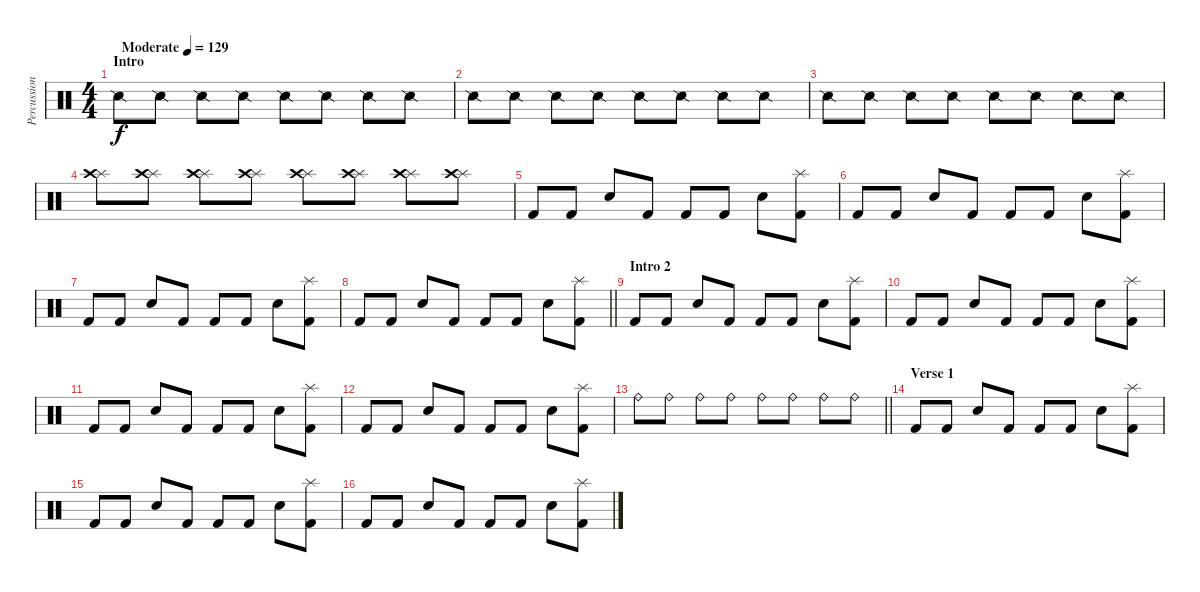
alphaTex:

\track ("Percussion" "Percussion") {instrument percussion}
\staff {score}
\articulation defaults
\ts (4 4)
\section ("" "Intro")
\tempo (129 "Moderate")
\clef neutral
\ks c "Snare (side stick) 2".8{dy f} "Snare (side stick) 2".8 "Snare (side stick) 2".8 "Snare (side stick) 2".8 "Snare (side stick) 2".8 "Snare (side stick) 2".8 "Snare (side stick) 2".8 "Snare (side stick) 2".8
|
"Snare (side stick) 2".8 "Snare (side stick) 2".8 "Snare (side stick) 2".8 "Snare (side stick) 2".8 "Snare (side stick) 2".8 "Snare (side stick) 2".8 "Snare (side stick) 2".8 "Snare (side stick) 2".8 |
"Snare (side stick) 2".8 "Snare (side stick) 2".8 "Snare (side stick) 2".8 "Snare (side stick) 2".8 "Snare (side stick) 2".8 "Snare (side stick) 2".8 "Snare (side stick) 2".8 "Snare (side stick) 2".8 |
("Splash (hit)" "Crash high (hit)").8 ("Splash (hit)" "Crash high (hit)").8 ("Splash (hit)" "Crash high (hit)").8 ("Splash (hit)" "Crash high (hit)").8 ("Splash (hit)" "Crash high (hit)").8 ("Splash (hit)" "Crash high (hit)").8 ("Splash (hit)" "Crash high (hit)").8 ("Splash (hit)" "Crash high (hit)").8 |
"Kick (hit) 2".8 "Kick (hit) 2".8 "Hand Clap (hit)".8 "Kick (hit) 2".8 "Kick (hit) 2".8 "Kick (hit) 2".8 "Hand Clap (hit)".8 ("Splash (hit)" "Kick (hit) 2").8 |
"Kick (hit) 2".8 "Kick (hit) 2".8 "Hand Clap (hit)".8 "Kick (hit) 2".8 "Kick (hit) 2".8 "Kick (hit) 2".8 "Hand Clap (hit)".8 ("Splash (hit)" "Kick (hit) 2").8 |
"Kick (hit) 2".8 "Kick (hit) 2".8 "Hand Clap (hit)".8 "Kick (hit) 2".8 "Kick (hit) 2".8 "Kick (hit) 2".8 "Hand Clap (hit)".8 ("Splash (hit)" "Kick (hit) 2").8 |
\barLineRight lightlight "Kick (hit) 2".8 "Kick (hit) 2".8 "Hand Clap (hit)".8 "Kick (hit) 2".8 "Kick (hit) 2".8 "Kick (hit) 2".8 "Hand Clap (hit)".8
("Splash (hit)" "Kick (hit) 2").8 |
\section ("" "Intro 2")
"Kick (hit) 2".8 "Kick (hit) 2".8 "Hand Clap (hit)".8 "Kick (hit) 2".8 "Kick (hit) 2".8 "Kick (hit) 2".8 "Hand Clap (hit)".8 ("Splash (hit)" "Kick (hit) 2").8 |
"Kick (hit) 2".8 "Kick (hit) 2".8 "Hand Clap (hit)".8 "Kick (hit) 2".8 "Kick (hit) 2".8 "Kick (hit) 2".8 "Hand Clap (hit)".8 ("Splash (hit)" "Kick (hit) 2").8 |
"Kick (hit) 2".8 "Kick (hit) 2".8 "Hand Clap (hit)".8 "Kick (hit) 2".8 "Kick (hit) 2".8 "Kick (hit) 2".8 "Hand Clap (hit)".8 ("Splash (hit)" "Kick (hit) 2").8 |
"Kick (hit) 2".8 "Kick (hit) 2".8 "Hand Clap (hit)".8 "Kick (hit) 2".8 "Kick (hit) 2".8 "Kick (hit) 2".8 "Hand Clap (hit)".8 ("Splash (hit)" "Kick (hit) 2").8 |
\barLineRight lightlight "Ride (bell)".8 "Ride (bell)".8 "Ride (bell)".8 "Ride (bell)".8 "Ride (bell)".8 "Ride (bell)".8 "Ride (bell)".8 "Ride (bell)".8
|
\section ("" "Verse 1")
"Kick (hit) 2".8 "Kick (hit) 2".8 "Hand Clap (hit)".8 "Kick (hit) 2".8 "Kick (hit) 2".8 "Kick (hit) 2".8 "Hand Clap (hit)".8 ("Splash (hit)" "Kick (hit) 2").8 |
"Kick (hit) 2".8 "Kick (hit) 2".8 "Hand Clap (hit)".8 "Kick (hit) 2".8 "Kick (hit) 2".8 "Kick (hit) 2".8 "Hand Clap (hit)".8 ("Splash (hit)" "Kick (hit) 2").8 |
"Kick (hit) 2".8 "Kick (hit) 2".8 "Hand Clap (hit)".8 "Kick (hit) 2".8 "Kick (hit) 2".8 "Kick (hit) 2".8 "Hand Clap (hit)".8 ("Splash (hit)" "Kick (hit) 2").8
